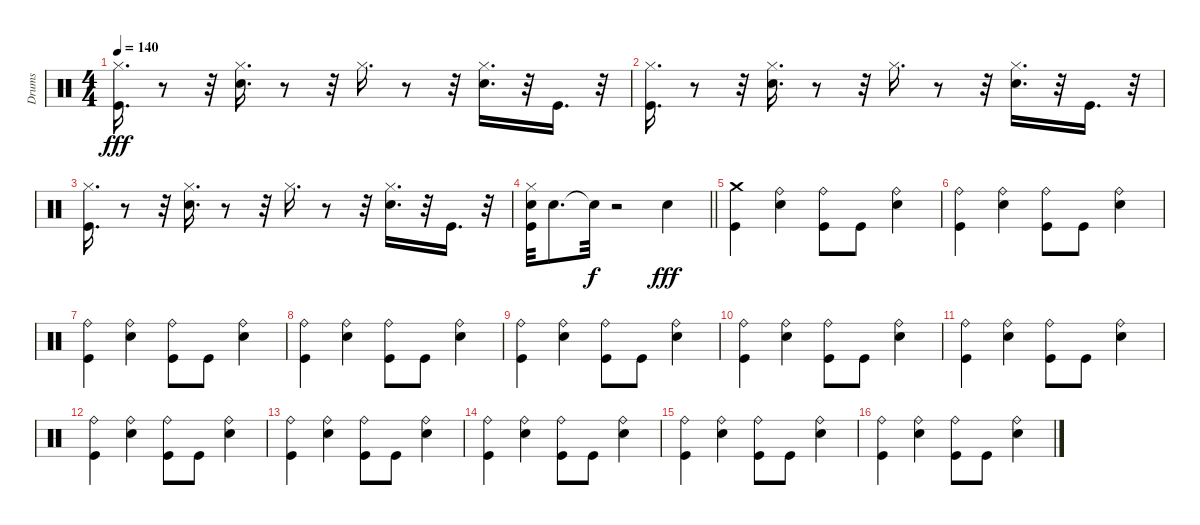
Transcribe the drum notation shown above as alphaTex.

\track ("Drums" "Drums") {instrument percussion}
\staff {score}
\articulation defaults
\ts (4 4)
\tempo 140
\clef neutral
\ks c
("Hi-Hat (closed)" "Kick (hit)").16{d dy fff} r.8 r.32 ("Hi-Hat (closed)" "Electric Snare (hit)").16{d} r.8 r.32 "Hi-Hat (closed)".16{d} r.8 r.32 ("Hi-Hat (closed)" "Electric Snare (hit)").16{d} r.32 "Kick (hit)".16{d} r.32 |
("Hi-Hat (closed)" "Kick (hit)").16{d} r.8 r.32 ("Hi-Hat (closed)" "Electric Snare (hit)").16{d} r.8 r.32 "Hi-Hat (closed)".16{d} r.8 r.32 ("Hi-Hat (closed)" "Electric Snare (hit)").16{d} r.32 "Kick (hit)".16{d} r.32 |
("Hi-Hat (closed)" "Kick (hit)").16{d} r.8 r.32 ("Hi-Hat (closed)" "Electric Snare (hit)").16{d} r.8 r.32 "Hi-Hat (closed)".16{d} r.8 r.32 ("Hi-Hat (closed)" "Electric Snare (hit)").16{d} r.32 "Kick (hit)".16{d} r.32 |
\barLineRight lightlight
("Hi-Hat (closed)" "Electric Snare (hit)" "Kick (hit)").32 "Electric Snare (hit)".8{d} "Snare (hit)"{t}.32{dy f} r.2 "Electric Snare (hit)".4{dy fff} |
("Crash medium (hit)" "Kick (hit)").4 ("Ride (bell)" "Electric Snare (hit)").4 ("Ride (bell)" "Kick (hit)").8 "Kick (hit)".8 ("Ride (bell)" "Electric Snare (hit)").4 |
("Ride (bell)" "Kick (hit)").4 ("Ride (bell)" "Electric Snare (hit)").4 ("Ride (bell)" "Kick (hit)").8 "Kick (hit)".8 ("Ride (bell)" "Electric Snare (hit)").4 |
("Ride (bell)" "Kick (hit)").4 ("Ride (bell)" "Electric Snare (hit)").4 ("Ride (bell)" "Kick (hit)").8 "Kick (hit)".8 ("Ride (bell)" "Electric Snare (hit)").4 |
("Ride (bell)" "Kick (hit)").4 ("Ride (bell)" "Electric Snare (hit)").4 ("Ride (bell)" "Kick (hit)").8 "Kick (hit)".8 ("Ride (bell)" "Electric Snare (hit)").4 |
("Ride (bell)" "Kick (hit)").4 ("Ride (bell)" "Electric Snare (hit)").4 ("Ride (bell)" "Kick (hit)").8 "Kick (hit)".8 ("Ride (bell)" "Electric Snare (hit)").4 |
("Ride (bell)" "Kick (hit)").4 ("Ride (bell)" "Electric Snare (hit)").4 ("Ride (bell)" "Kick (hit)").8 "Kick (hit)".8 ("Ride (bell)" "Electric Snare (hit)").4 |
("Ride (bell)" "Kick (hit)").4 ("Ride (bell)" "Electric Snare (hit)").4 ("Ride (bell)" "Kick (hit)").8 "Kick (hit)".8 ("Ride (bell)" "Electric Snare (hit)").4 |
("Ride (bell)" "Kick (hit)").4 ("Ride (bell)" "Electric Snare (hit)").4 ("Ride (bell)" "Kick (hit)").8 "Kick (hit)".8 ("Ride (bell)" "Electric Snare (hit)").4 |
("Ride (bell)" "Kick (hit)").4 ("Ride (bell)" "Electric Snare (hit)").4 ("Ride (bell)" "Kick (hit)").8 "Kick (hit)".8 ("Ride (bell)" "Electric Snare (hit)").4 |
("Ride (bell)" "Kick (hit)").4 ("Ride (bell)" "Electric Snare (hit)").4 ("Ride (bell)" "Kick (hit)").8 "Kick (hit)".8 ("Ride (bell)" "Electric Snare (hit)").4 |
("Ride (bell)" "Kick (hit)").4 ("Ride (bell)" "Electric Snare (hit)").4 ("Ride (bell)" "Kick (hit)").8 "Kick (hit)".8 ("Ride (bell)" "Electric Snare (hit)").4 |
("Ride (bell)" "Kick (hit)").4 ("Ride (bell)" "Electric Snare (hit)").4 ("Ride (bell)" "Kick (hit)").8 "Kick (hit)".8 ("Ride (bell)" "Electric Snare (hit)").4
